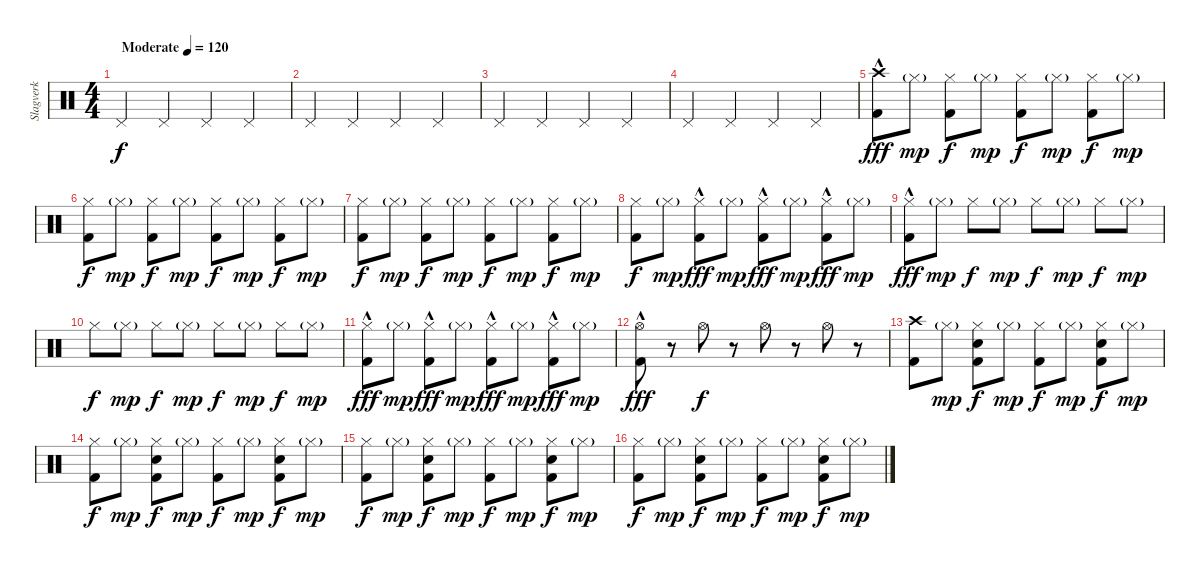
\track ("Slagverk" "Slagverk") {instrument percussion}
\staff {score}
\articulation defaults
\ts (4 4)
\tempo (120 "Moderate")
\clef neutral
\ks c "Pedal Hi-Hat (hit)".4{dy f} "Pedal Hi-Hat (hit)".4 "Pedal Hi-Hat (hit)".4 "Pedal Hi-Hat (hit)".4
|
"Pedal Hi-Hat (hit)".4 "Pedal Hi-Hat (hit)".4 "Pedal Hi-Hat (hit)".4 "Pedal Hi-Hat (hit)".4 |
"Pedal Hi-Hat (hit)".4 "Pedal Hi-Hat (hit)".4 "Pedal Hi-Hat (hit)".4 "Pedal Hi-Hat (hit)".4 |
"Pedal Hi-Hat (hit)".4 "Pedal Hi-Hat (hit)".4 "Pedal Hi-Hat (hit)".4 "Pedal Hi-Hat (hit)".4 |
("Kick (hit) 2"{hac} "Crash high (hit)").8{dy fff} "Hi-Hat (closed)"{g}.8{dy mp} ("Kick (hit) 2" "Hi-Hat (closed)").8{dy f} "Hi-Hat (closed)"{g}.8{dy mp} ("Kick (hit) 2" "Hi-Hat (closed)").8{dy f} "Hi-Hat (closed)"{g}.8{dy mp} ("Kick (hit) 2" "Hi-Hat (closed)").8{dy f} "Hi-Hat (closed)"{g}.8{dy mp} |
("Kick (hit) 2" "Hi-Hat (closed)").8{dy f} "Hi-Hat (closed)"{g}.8{dy mp} ("Kick (hit) 2" "Hi-Hat (closed)").8{dy f} "Hi-Hat (closed)"{g}.8{dy mp} ("Kick (hit) 2" "Hi-Hat (closed)").8{dy f} "Hi-Hat (closed)"{g}.8{dy mp} ("Kick (hit) 2" "Hi-Hat (closed)").8{dy f} "Hi-Hat (closed)"{g}.8{dy mp} |
("Kick (hit) 2" "Hi-Hat (closed)").8{dy f} "Hi-Hat (closed)"{g}.8{dy mp} ("Kick (hit) 2" "Hi-Hat (closed)").8{dy f} "Hi-Hat (closed)"{g}.8{dy mp} ("Kick (hit) 2" "Hi-Hat (closed)").8{dy f} "Hi-Hat (closed)"{g}.8{dy mp} ("Kick (hit) 2" "Hi-Hat (closed)").8{dy f} "Hi-Hat (closed)"{g}.8{dy mp} |
("Kick (hit) 2" "Hi-Hat (closed)").8{dy f} "Hi-Hat (closed)"{g}.8{dy mp} ("Kick (hit) 2"{hac} "Hi-Hat (closed)").8{dy fff} "Hi-Hat (closed)"{g}.8{dy mp} ("Kick (hit) 2"{hac} "Hi-Hat (closed)").8{dy fff} "Hi-Hat (closed)"{g}.8{dy mp} ("Kick (hit) 2"{hac} "Hi-Hat (closed)").8{dy fff} "Hi-Hat (closed)"{g}.8{dy mp} |
("Kick (hit) 2"{hac} "Hi-Hat (closed)").8{dy fff} "Hi-Hat (closed)"{g}.8{dy mp} "Hi-Hat (closed)".8{dy f} "Hi-Hat (closed)"{g}.8{dy mp} "Hi-Hat (closed)".8{dy f} "Hi-Hat (closed)"{g}.8{dy mp} "Hi-Hat (closed)".8{dy f} "Hi-Hat (closed)"{g}.8{dy mp} |
"Hi-Hat (closed)".8{dy f} "Hi-Hat (closed)"{g}.8{dy mp} "Hi-Hat (closed)".8{dy f} "Hi-Hat (closed)"{g}.8{dy mp} "Hi-Hat (closed)".8{dy f} "Hi-Hat (closed)"{g}.8{dy mp} "Hi-Hat (closed)".8{dy f} "Hi-Hat (closed)"{g}.8{dy mp} |
("Kick (hit) 2"{hac} "Hi-Hat (closed)").8{dy fff} "Hi-Hat (closed)"{g}.8{dy mp} ("Kick (hit) 2"{hac} "Hi-Hat (closed)").8{dy fff} "Hi-Hat (closed)"{g}.8{dy mp} ("Kick (hit) 2"{hac} "Hi-Hat (closed)").8{dy fff} "Hi-Hat (closed)"{g}.8{dy mp} ("Kick (hit) 2"{hac} "Hi-Hat (closed)").8{dy fff} "Hi-Hat (closed)"{g}.8{dy mp} |
("Kick (hit) 2"{hac} "Hi-Hat (open)").8{dy fff} r.8 "Hi-Hat (open)".8{dy f} r.8 "Hi-Hat (open)".8 r.8 "Hi-Hat (open)".8 r.8 |
("Kick (hit) 2" "Crash high (hit)").8 "Hi-Hat (closed)"{g}.8{dy mp} ("Kick (hit) 2" "Hi-Hat (closed)" "Snare (hit) 2").8{dy f} "Hi-Hat (closed)"{g}.8{dy mp} ("Kick (hit) 2" "Hi-Hat (closed)").8{dy f} "Hi-Hat (closed)"{g}.8{dy mp} ("Kick (hit) 2" "Hi-Hat (closed)" "Snare (hit) 2").8{dy f} "Hi-Hat (closed)"{g}.8{dy mp} |
("Kick (hit) 2" "Hi-Hat (closed)").8{dy f} "Hi-Hat (closed)"{g}.8{dy mp} ("Kick (hit) 2" "Hi-Hat (closed)" "Snare (hit) 2").8{dy f} "Hi-Hat (closed)"{g}.8{dy mp} ("Kick (hit) 2" "Hi-Hat (closed)").8{dy f} "Hi-Hat (closed)"{g}.8{dy mp} ("Kick (hit) 2" "Hi-Hat (closed)" "Snare (hit) 2").8{dy f} "Hi-Hat (closed)"{g}.8{dy mp} |
("Kick (hit) 2" "Hi-Hat (closed)").8{dy f} "Hi-Hat (closed)"{g}.8{dy mp} ("Kick (hit) 2" "Hi-Hat (closed)" "Snare (hit) 2").8{dy f} "Hi-Hat (closed)"{g}.8{dy mp} ("Kick (hit) 2" "Hi-Hat (closed)").8{dy f} "Hi-Hat (closed)"{g}.8{dy mp} ("Kick (hit) 2" "Hi-Hat (closed)" "Snare (hit) 2").8{dy f} "Hi-Hat (closed)"{g}.8{dy mp} |
("Kick (hit) 2" "Hi-Hat (closed)").8{dy f} "Hi-Hat (closed)"{g}.8{dy mp} ("Kick (hit) 2" "Hi-Hat (closed)" "Snare (hit) 2").8{dy f} "Hi-Hat (closed)"{g}.8{dy mp} ("Kick (hit) 2" "Hi-Hat (closed)").8{dy f} "Hi-Hat (closed)"{g}.8{dy mp} ("Kick (hit) 2" "Hi-Hat (closed)" "Snare (hit) 2").8{dy f} "Hi-Hat (closed)"{g}.8{dy mp}
